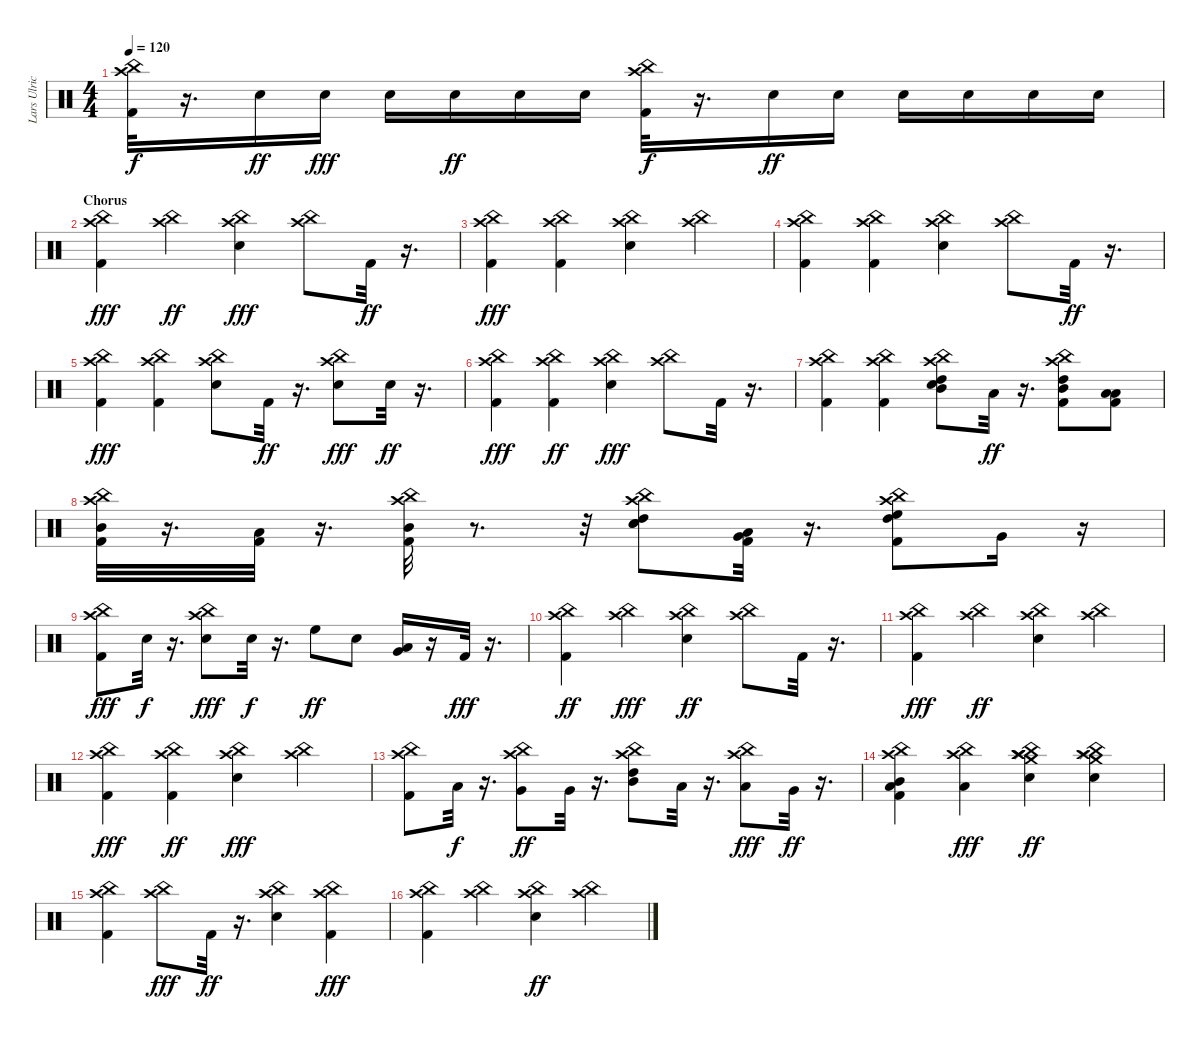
\track ("Lars Ulrich" "Lars Ulric") {instrument percussion}
\staff {score}
\articulation defaults
\ts (4 4)
\tempo 120
\clef neutral
\ks c
("Crash high (hit)" "China (hit)" "Kick (hit) 2").32{dy f} r.16{d} "Snare (hit) 2".16{dy ff} "Snare (hit) 2".16{dy fff} "Snare (hit) 2".16 "Snare (hit) 2".16{dy ff} "Snare (hit) 2".16 "Snare (hit) 2".16 ("Crash high (hit)" "China (hit)" "Kick (hit) 2").32{dy f} r.16{d} "Snare (hit) 2".16{dy ff} "Snare (hit) 2".16 "Snare (hit) 2".16 "Snare (hit) 2".16 "Snare (hit) 2".16 "Snare (hit) 2".16 |
\section ("" "Chorus")
("Kick (hit) 2" "China (hit)" "Crash high (hit)").4{dy fff} ("China (hit)" "Crash high (hit)").4{dy ff} ("Snare (hit) 2" "China (hit)" "Crash high (hit)").4{dy fff} ("China (hit)" "Crash high (hit)").8 "Kick (hit) 2".32{dy ff} r.16{d} |
("Kick (hit) 2" "China (hit)" "Crash high (hit)").4{dy fff} ("Kick (hit) 2" "China (hit)" "Crash high (hit)").4 ("Snare (hit) 2" "China (hit)" "Crash high (hit)").4 ("China (hit)" "Crash high (hit)").4 |
("Kick (hit) 2" "China (hit)" "Crash high (hit)").4 ("Kick (hit) 2" "China (hit)" "Crash high (hit)").4 ("Snare (hit) 2" "Crash high (hit)" "China (hit)").4 ("China (hit)" "Crash high (hit)").8 "Kick (hit) 2".32{dy ff} r.16{d} |
("Kick (hit) 2" "China (hit)" "Crash high (hit)").4{dy fff} ("Kick (hit) 2" "China (hit)" "Crash high (hit)").4 ("Snare (hit) 2" "Crash high (hit)" "China (hit)").8 "Kick (hit) 2".32{dy ff} r.16{d} ("Snare (hit) 2" "China (hit)" "Crash high (hit)").8{dy fff} "Snare (hit) 2".32{dy ff} r.16{d} |
("Kick (hit) 2" "China (hit)" "Crash high (hit)").4{dy fff} ("Kick (hit) 2" "China (hit)" "Crash high (hit)").4{dy ff} ("Snare (hit) 2" "China (hit)" "Crash high (hit)").4{dy fff} ("China (hit)" "Crash high (hit)").8 "Kick (hit) 2".32 r.16{d} |
("Kick (hit) 2" "China (hit)" "Crash high (hit)").4 ("Kick (hit) 2" "China (hit)" "Crash high (hit)").4 ("High Tom (hit)" "Mid Tom (hit)" "Snare (hit) 2" "China (hit)" "Crash high (hit)").8 "Low Tom (hit)".32{dy ff} r.16{d} ("China (hit)" "Crash high (hit)" "Mid Tom (hit)" "High Tom (hit)" "Kick (hit) 2").8 ("Low Tom (hit)" "Low Tom (hit)" "Kick (hit) 2").8 |
("Crash high (hit)" "China (hit)" "Mid Tom (hit)" "Kick (hit) 2").32 r.16{d} ("Low Tom (hit)" "Kick (hit) 2").32 r.16{d} ("China (hit)" "Crash high (hit)" "Mid Tom (hit)" "Kick (hit) 2").32 r.8{d} r.32 ("High Tom (hit)" "Snare (hit) 2" "Crash high (hit)" "China (hit)" "Snare (hit) 2").8 ("Very Low Tom (hit)" "Low Tom (hit)" "Kick (hit) 2").32 r.16{d} ("High Floor Tom (hit)" "Crash high (hit)" "High Tom (hit)" "Kick (hit) 2" "China (hit)").8 "Very Low Tom (hit)".16 r.16 |
("Kick (hit) 2" "China (hit)" "Crash high (hit)").8{dy fff} "Snare (hit) 2".32{dy f} r.16{d} ("Snare (hit) 2" "China (hit)" "Crash high (hit)").8{dy fff} "Snare (hit) 2".32{dy f} r.16{d} "High Floor Tom (hit)".8{dy ff} "Snare (hit) 2".8 ("Very Low Tom (hit)" "Low Tom (hit)").16 r.16 "Kick (hit) 2".32{dy fff} r.16{d} |
("Kick (hit) 2" "China (hit)" "Crash high (hit)").4{dy ff} ("China (hit)" "Crash high (hit)").4{dy fff} ("Snare (hit) 2" "China (hit)" "Crash high (hit)").4{dy ff} ("China (hit)" "Crash high (hit)").8 "Kick (hit) 2".32 r.16{d} |
("Kick (hit) 2" "China (hit)" "Crash high (hit)").4{dy fff} ("China (hit)" "Crash high (hit)").4{dy ff} ("China (hit)" "Snare (hit) 2" "Crash high (hit)").4 ("China (hit)" "Crash high (hit)").4 |
("Kick (hit) 2" "China (hit)" "Crash high (hit)").4{dy fff} ("Kick (hit) 2" "China (hit)" "Crash high (hit)").4{dy ff} ("China (hit)" "Snare (hit) 2" "Crash high (hit)").4{dy fff} ("China (hit)" "Crash high (hit)").4 |
("Kick (hit) 2" "China (hit)" "Crash high (hit)").8 "Low Tom (hit)".32{dy f} r.16{d} ("Very Low Tom (hit)" "China (hit)" "Crash high (hit)").8{dy ff} "Very Low Tom (hit)".32 r.16{d} ("Mid Tom (hit)" "High Tom (hit)" "China (hit)" "Crash high (hit)").8 "Low Floor Tom (hit)".32 r.16{d} ("Low Tom (hit)" "China (hit)" "Crash high (hit)").8{dy fff} "Very Low Tom (hit)".32{dy ff} r.16{d} |
("Kick (hit) 2" "Low Tom (hit)" "Mid Tom (hit)" "China (hit)" "Crash high (hit)").4 ("Low Tom (hit)" "China (hit)" "Crash high (hit)").4{dy fff} ("Crash medium (hit)" "Splash (hit)" "Crash high (hit)" "China (hit)" "Crash high (hit)" "Snare (hit) 2").4{dy ff} ("Splash (hit)" "Crash medium (hit)" "Snare (hit) 2" "China (hit)" "Crash high (hit)").4 |
("Kick (hit) 2" "China (hit)" "Crash high (hit)").4 ("China (hit)" "Crash high (hit)").8{dy fff} "Kick (hit) 2".32{dy ff} r.16{d} ("China (hit)" "Crash high (hit)" "Snare (hit) 2").4 ("Kick (hit) 2" "China (hit)" "Crash high (hit)").4{dy fff} |
("Kick (hit) 2" "China (hit)" "Crash high (hit)").4 ("China (hit)" "Crash high (hit)").4 ("Snare (hit) 2" "China (hit)" "Crash high (hit)").4{dy ff} ("China (hit)" "Crash high (hit)").4
